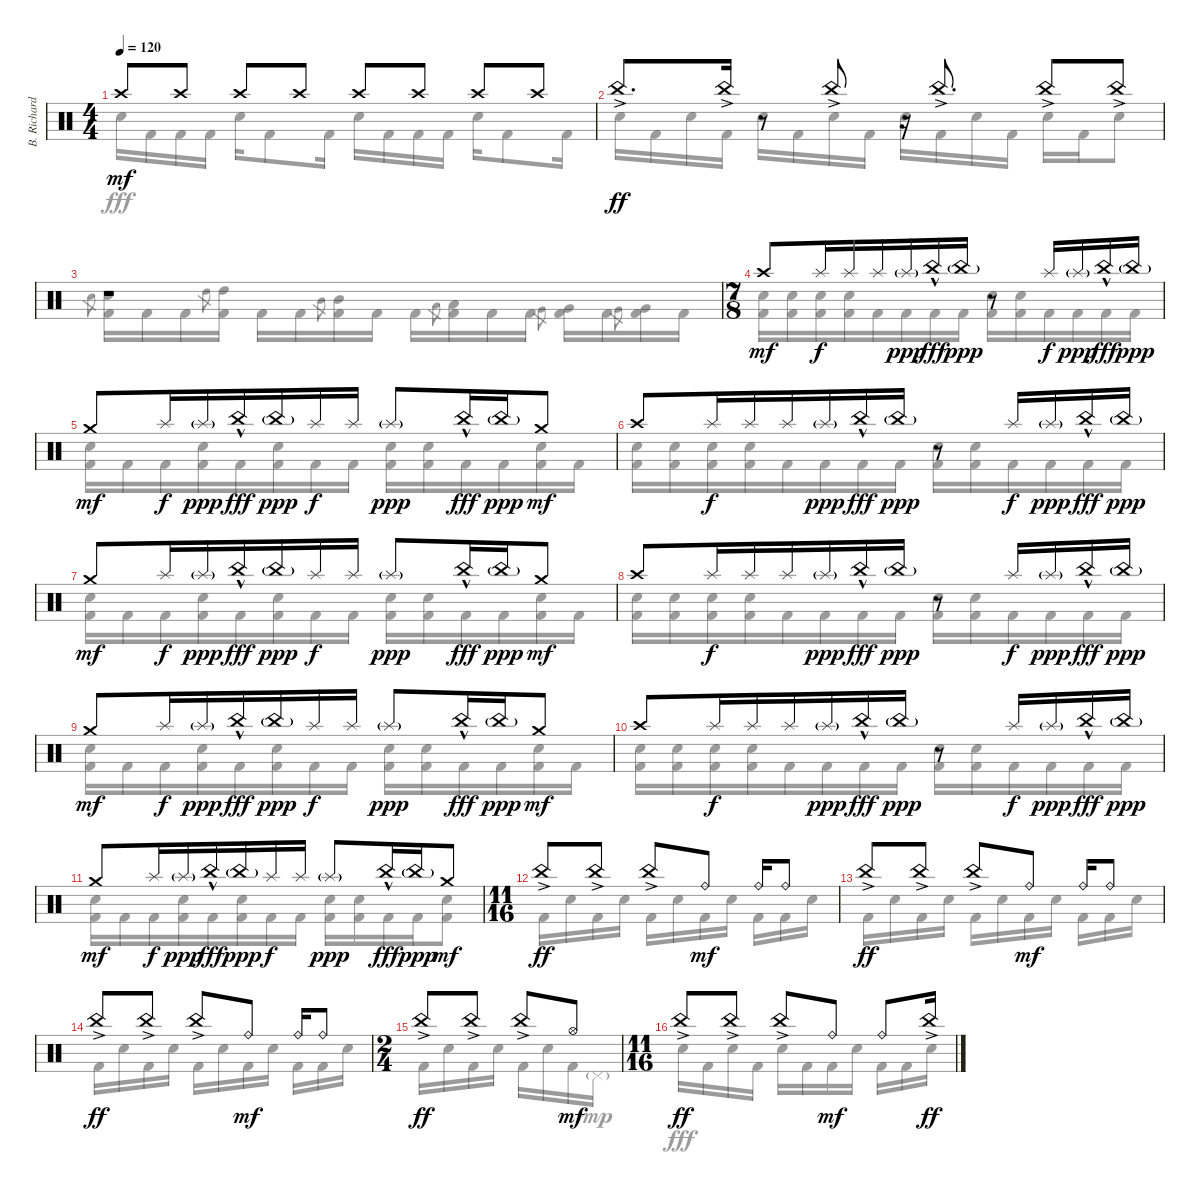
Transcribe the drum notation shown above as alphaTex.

\track ("B. Richardson Drums" "B. Richard") {instrument percussion}
\staff {score}
\articulation defaults
\voice
\ts (4 4)
\tempo 120
\clef neutral
\ks c "Crash high (hit)".8{dy mf} "Crash high (hit)".8 "Crash high (hit)".8 "Crash high (hit)".8 "Crash high (hit)".8 "Crash high (hit)".8 "Crash high (hit)".8 "Crash high (hit)".8
|
"China (hit)"{ac}.8{d dy ff} "China (hit)"{ac}.16 r.8 "China (hit)"{ac}.8 r.16 "China (hit)"{ac}.8{d} "China (hit)"{ac}.8 "China (hit)"{ac}.8 |
r.1 |
\ts (7 8)
"Crash high (hit)".8{dy mf} "Splash (hit)".16{dy f} "Splash (hit)".16 "Splash (hit)".16 "Splash (hit)"{g}.16{dy ppp} "China (hit)"{hac}.16{dy fff} "China (hit)"{g}.16{dy ppp} r.8 "Splash (hit)".16{dy f} "Splash (hit)"{g}.16{dy ppp} "China (hit)"{hac}.16{dy fff} "China (hit)"{g}.16{dy ppp} |
"Crash medium (hit)".8{dy mf} "Splash (hit)".16{dy f} "Splash (hit)"{g}.16{dy ppp} "China (hit)"{hac}.16{dy fff} "China (hit)"{g}.16{dy ppp} "Splash (hit)".16{dy f} "Splash (hit)".16 "Splash (hit)"{g}.8{dy ppp} "China (hit)"{hac}.16{dy fff} "China (hit)"{g}.16{dy ppp} "Crash medium (hit)".8{dy mf} |
"Crash high (hit)".8 "Splash (hit)".16{dy f} "Splash (hit)".16 "Splash (hit)".16 "Splash (hit)"{g}.16{dy ppp} "China (hit)"{hac}.16{dy fff} "China (hit)"{g}.16{dy ppp} r.8 "Splash (hit)".16{dy f} "Splash (hit)"{g}.16{dy ppp} "China (hit)"{hac}.16{dy fff} "China (hit)"{g}.16{dy ppp} |
"Crash medium (hit)".8{dy mf} "Splash (hit)".16{dy f} "Splash (hit)"{g}.16{dy ppp} "China (hit)"{hac}.16{dy fff} "China (hit)"{g}.16{dy ppp} "Splash (hit)".16{dy f} "Splash (hit)".16 "Splash (hit)"{g}.8{dy ppp} "China (hit)"{hac}.16{dy fff} "China (hit)"{g}.16{dy ppp} "Crash medium (hit)".8{dy mf} |
"Crash high (hit)".8 "Splash (hit)".16{dy f} "Splash (hit)".16 "Splash (hit)".16 "Splash (hit)"{g}.16{dy ppp} "China (hit)"{hac}.16{dy fff} "China (hit)"{g}.16{dy ppp} r.8 "Splash (hit)".16{dy f} "Splash (hit)"{g}.16{dy ppp} "China (hit)"{hac}.16{dy fff} "China (hit)"{g}.16{dy ppp} |
"Crash medium (hit)".8{dy mf} "Splash (hit)".16{dy f} "Splash (hit)"{g}.16{dy ppp} "China (hit)"{hac}.16{dy fff} "China (hit)"{g}.16{dy ppp} "Splash (hit)".16{dy f} "Splash (hit)".16 "Splash (hit)"{g}.8{dy ppp} "China (hit)"{hac}.16{dy fff} "China (hit)"{g}.16{dy ppp} "Crash medium (hit)".8{dy mf} |
"Crash high (hit)".8 "Splash (hit)".16{dy f} "Splash (hit)".16 "Splash (hit)".16 "Splash (hit)"{g}.16{dy ppp} "China (hit)"{hac}.16{dy fff} "China (hit)"{g}.16{dy ppp} r.8 "Splash (hit)".16{dy f} "Splash (hit)"{g}.16{dy ppp} "China (hit)"{hac}.16{dy fff} "China (hit)"{g}.16{dy ppp} |
"Crash medium (hit)".8{dy mf} "Splash (hit)".16{dy f} "Splash (hit)"{g}.16{dy ppp} "China (hit)"{hac}.16{dy fff} "China (hit)"{g}.16{dy ppp} "Splash (hit)".16{dy f} "Splash (hit)".16 "Splash (hit)"{g}.8{dy ppp} "China (hit)"{hac}.16{dy fff} "China (hit)"{g}.16{dy ppp} "Crash medium (hit)".8{dy mf} |
\ts (11 16)
"China (hit)"{ac}.8{dy ff} "China (hit)"{ac}.8 "China (hit)"{ac}.8 "Ride (bell)".8{dy mf} "Ride (bell)".16 "Ride (bell)".8 |
"China (hit)"{ac}.8{dy ff} "China (hit)"{ac}.8 "China (hit)"{ac}.8 "Ride (bell)".8{dy mf} "Ride (bell)".16 "Ride (bell)".8 |
"China (hit)"{ac}.8{dy ff} "China (hit)"{ac}.8 "China (hit)"{ac}.8 "Ride (bell)".8{dy mf} "Ride (bell)".16 "Ride (bell)".8 |
\ts (2 4)
"China (hit)"{ac}.8{dy ff} "China (hit)"{ac}.8 "China (hit)"{ac}.8 "Hi-Hat (open)".8{dy mf} |
\ts (11 16)
"China (hit)"{ac}.8{dy ff} "China (hit)"{ac}.8 "China (hit)"{ac}.8 "Ride (bell)".8{dy mf} "Ride (bell)".8 "China (hit)"{ac}.16{dy ff}
\voice
\clef neutral
\ottava regular
\simile none
\ks c "Electric Snare (hit)".16{dy fff} "Kick (hit) 2".16 "Kick (hit) 2".16 "Kick (hit) 2".16 "Electric Snare (hit)".16 "Kick (hit) 2".8 "Kick (hit) 2".16 "Electric Snare (hit)".16 "Kick (hit) 2".16 "Kick (hit) 2".16 "Kick (hit) 2".16 "Electric Snare (hit)".16 "Kick (hit) 2".8 "Kick (hit) 2".16
|
"Electric Snare (hit)".16 "Kick (hit) 2".16 "Electric Snare (hit)".16 "Kick (hit) 2".16 "Electric Snare (hit)".16 "Kick (hit) 2".16 "Electric Snare (hit)".16 "Kick (hit) 2".16 "Electric Snare (hit)".16 "Kick (hit) 2".16 "Electric Snare (hit)".16 "Kick (hit) 2".16 "Electric Snare (hit)".16 "Kick (hit) 2".16 "Electric Snare (hit)".8 |
"Electric Snare (hit)".8{gr} ("Electric Snare (hit)" "Kick (hit) 2").16 "Kick (hit) 2".16 "Kick (hit) 2".16 "High Tom (hit)".8{gr} ("High Tom (hit)" "Kick (hit) 2").16 "Kick (hit) 2".16 "Kick (hit) 2".16 "Mid Tom (hit)".8{gr} ("Mid Tom (hit)" "Kick (hit) 2").16 "Kick (hit) 2".16 "Kick (hit) 2".16 "Low Tom (hit)".8{gr} ("Low Tom (hit)" "Kick (hit) 2").16 "Kick (hit) 2".16 "Kick (hit) 2".16 "Very Low Tom (hit)".8{gr} ("Very Low Tom (hit)" "Kick (hit) 2").16 "Kick (hit) 2".16 "Very Low Tom (hit)".8{gr} ("Very Low Tom (hit)" "Kick (hit) 2").16 "Kick (hit) 2".16 |
("Electric Snare (hit)" "Kick (hit) 2").16 ("Electric Snare (hit)" "Kick (hit) 2").16 ("Electric Snare (hit)" "Kick (hit) 2").16 ("Electric Snare (hit)" "Kick (hit) 2").16 "Kick (hit) 2".16 "Kick (hit) 2".16 "Kick (hit) 2".16 "Kick (hit) 2".16 ("Electric Snare (hit)" "Kick (hit) 2").16 ("Electric Snare (hit)" "Kick (hit) 2").16 "Kick (hit) 2".16 "Kick (hit) 2".16 "Kick (hit) 2".16 "Kick (hit) 2".16 |
("Electric Snare (hit)" "Kick (hit) 2").16 "Kick (hit) 2".16 "Kick (hit) 2".16 ("Electric Snare (hit)" "Kick (hit) 2").16 "Kick (hit) 2".16 ("Electric Snare (hit)" "Kick (hit) 2").16 "Kick (hit) 2".16 "Kick (hit) 2".16 ("Electric Snare (hit)" "Kick (hit) 2").16 ("Electric Snare (hit)" "Kick (hit) 2").16 "Kick (hit) 2".16 "Kick (hit) 2".16 ("Electric Snare (hit)" "Kick (hit) 2").16 "Kick (hit) 2".16 |
("Electric Snare (hit)" "Kick (hit) 2").16 ("Electric Snare (hit)" "Kick (hit) 2").16 ("Electric Snare (hit)" "Kick (hit) 2").16 ("Electric Snare (hit)" "Kick (hit) 2").16 "Kick (hit) 2".16 "Kick (hit) 2".16 "Kick (hit) 2".16 "Kick (hit) 2".16 ("Electric Snare (hit)" "Kick (hit) 2").16 ("Electric Snare (hit)" "Kick (hit) 2").16 "Kick (hit) 2".16 "Kick (hit) 2".16 "Kick (hit) 2".16 "Kick (hit) 2".16 |
("Electric Snare (hit)" "Kick (hit) 2").16 "Kick (hit) 2".16 "Kick (hit) 2".16 ("Electric Snare (hit)" "Kick (hit) 2").16 "Kick (hit) 2".16 ("Electric Snare (hit)" "Kick (hit) 2").16 "Kick (hit) 2".16 "Kick (hit) 2".16 ("Electric Snare (hit)" "Kick (hit) 2").16 ("Electric Snare (hit)" "Kick (hit) 2").16 "Kick (hit) 2".16 "Kick (hit) 2".16 ("Electric Snare (hit)" "Kick (hit) 2").16 "Kick (hit) 2".16 |
("Electric Snare (hit)" "Kick (hit) 2").16 ("Electric Snare (hit)" "Kick (hit) 2").16 ("Electric Snare (hit)" "Kick (hit) 2").16 ("Electric Snare (hit)" "Kick (hit) 2").16 "Kick (hit) 2".16 "Kick (hit) 2".16 "Kick (hit) 2".16 "Kick (hit) 2".16 ("Electric Snare (hit)" "Kick (hit) 2").16 ("Electric Snare (hit)" "Kick (hit) 2").16 "Kick (hit) 2".16 "Kick (hit) 2".16 "Kick (hit) 2".16 "Kick (hit) 2".16 |
("Electric Snare (hit)" "Kick (hit) 2").16 "Kick (hit) 2".16 "Kick (hit) 2".16 ("Electric Snare (hit)" "Kick (hit) 2").16 "Kick (hit) 2".16 ("Electric Snare (hit)" "Kick (hit) 2").16 "Kick (hit) 2".16 "Kick (hit) 2".16 ("Electric Snare (hit)" "Kick (hit) 2").16 ("Electric Snare (hit)" "Kick (hit) 2").16 "Kick (hit) 2".16 "Kick (hit) 2".16 ("Electric Snare (hit)" "Kick (hit) 2").16 "Kick (hit) 2".16 |
("Electric Snare (hit)" "Kick (hit) 2").16 ("Electric Snare (hit)" "Kick (hit) 2").16 ("Electric Snare (hit)" "Kick (hit) 2").16 ("Electric Snare (hit)" "Kick (hit) 2").16 "Kick (hit) 2".16 "Kick (hit) 2".16 "Kick (hit) 2".16 "Kick (hit) 2".16 ("Electric Snare (hit)" "Kick (hit) 2").16 ("Electric Snare (hit)" "Kick (hit) 2").16 "Kick (hit) 2".16 "Kick (hit) 2".16 "Kick (hit) 2".16 "Kick (hit) 2".16 |
("Electric Snare (hit)" "Kick (hit) 2").16 "Kick (hit) 2".16 "Kick (hit) 2".16 ("Electric Snare (hit)" "Kick (hit) 2").16 "Kick (hit) 2".16 ("Electric Snare (hit)" "Kick (hit) 2").16 "Kick (hit) 2".16 "Kick (hit) 2".16 ("Electric Snare (hit)" "Kick (hit) 2").16 ("Electric Snare (hit)" "Kick (hit) 2").16 "Kick (hit) 2".16 "Kick (hit) 2".16 ("Electric Snare (hit)" "Kick (hit) 2").8 |
"Kick (hit) 2".16 "Electric Snare (hit)".16 "Kick (hit) 2".16 "Electric Snare (hit)".16 "Kick (hit) 2".16 "Electric Snare (hit)".16 "Kick (hit) 2".16 "Electric Snare (hit)".16 "Kick (hit) 2".16 "Kick (hit) 2".16 "Electric Snare (hit)".16 |
"Kick (hit) 2".16 "Electric Snare (hit)".16 "Kick (hit) 2".16 "Electric Snare (hit)".16 "Kick (hit) 2".16 "Electric Snare (hit)".16 "Kick (hit) 2".16 "Electric Snare (hit)".16 "Kick (hit) 2".16 "Kick (hit) 2".16 "Electric Snare (hit)".16 |
"Kick (hit) 2".16 "Electric Snare (hit)".16 "Kick (hit) 2".16 "Electric Snare (hit)".16 "Kick (hit) 2".16 "Electric Snare (hit)".16 "Kick (hit) 2".16 "Electric Snare (hit)".16 "Kick (hit) 2".16 "Kick (hit) 2".16 "Electric Snare (hit)".16 |
"Kick (hit) 2".16 "Electric Snare (hit)".16 "Kick (hit) 2".16 "Electric Snare (hit)".16 "Kick (hit) 2".16 "Electric Snare (hit)".16 "Kick (hit) 2".16 "Pedal Hi-Hat (hit)"{g}.16{dy mp} |
"Electric Snare (hit)".16{dy fff} "Kick (hit) 2".16 "Electric Snare (hit)".16 "Kick (hit) 2".16 "Electric Snare (hit)".16 "Kick (hit) 2".16 "Kick (hit) 2".16 "Electric Snare (hit)".16 "Kick (hit) 2".16 "Kick (hit) 2".16 "Electric Snare (hit)".16
